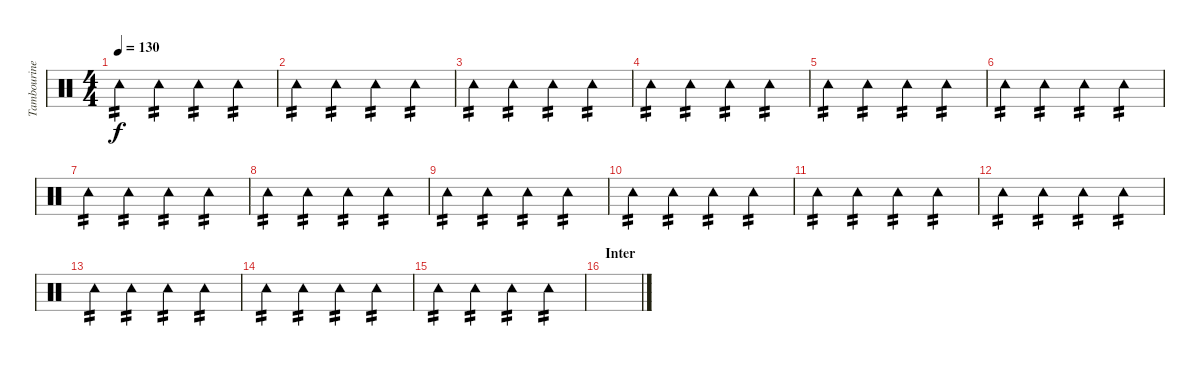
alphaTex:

\track ("Tambourine" "Tambourine") {instrument percussion}
\staff {score}
\articulation defaults
\ts (4 4)
\tempo 130
\clef neutral
\ks c "Tambourine (hit)".4{tp 2 dy f} "Tambourine (hit)".4{tp 2} "Tambourine (hit)".4{tp 2} "Tambourine (hit)".4{tp 2}
|
"Tambourine (hit)".4{tp 2} "Tambourine (hit)".4{tp 2} "Tambourine (hit)".4{tp 2} "Tambourine (hit)".4{tp 2} |
"Tambourine (hit)".4{tp 2} "Tambourine (hit)".4{tp 2} "Tambourine (hit)".4{tp 2} "Tambourine (hit)".4{tp 2} |
"Tambourine (hit)".4{tp 2} "Tambourine (hit)".4{tp 2} "Tambourine (hit)".4{tp 2} "Tambourine (hit)".4{tp 2} |
"Tambourine (hit)".4{tp 2} "Tambourine (hit)".4{tp 2} "Tambourine (hit)".4{tp 2} "Tambourine (hit)".4{tp 2} |
"Tambourine (hit)".4{tp 2} "Tambourine (hit)".4{tp 2} "Tambourine (hit)".4{tp 2} "Tambourine (hit)".4{tp 2} |
"Tambourine (hit)".4{tp 2} "Tambourine (hit)".4{tp 2} "Tambourine (hit)".4{tp 2} "Tambourine (hit)".4{tp 2} |
"Tambourine (hit)".4{tp 2} "Tambourine (hit)".4{tp 2} "Tambourine (hit)".4{tp 2} "Tambourine (hit)".4{tp 2} |
"Tambourine (hit)".4{tp 2} "Tambourine (hit)".4{tp 2} "Tambourine (hit)".4{tp 2} "Tambourine (hit)".4{tp 2} |
"Tambourine (hit)".4{tp 2} "Tambourine (hit)".4{tp 2} "Tambourine (hit)".4{tp 2} "Tambourine (hit)".4{tp 2} |
"Tambourine (hit)".4{tp 2} "Tambourine (hit)".4{tp 2} "Tambourine (hit)".4{tp 2} "Tambourine (hit)".4{tp 2} |
"Tambourine (hit)".4{tp 2} "Tambourine (hit)".4{tp 2} "Tambourine (hit)".4{tp 2} "Tambourine (hit)".4{tp 2} |
"Tambourine (hit)".4{tp 2} "Tambourine (hit)".4{tp 2} "Tambourine (hit)".4{tp 2} "Tambourine (hit)".4{tp 2} |
"Tambourine (hit)".4{tp 2} "Tambourine (hit)".4{tp 2} "Tambourine (hit)".4{tp 2} "Tambourine (hit)".4{tp 2} |
"Tambourine (hit)".4{tp 2} "Tambourine (hit)".4{tp 2} "Tambourine (hit)".4{tp 2} "Tambourine (hit)".4{tp 2} |
\section ("" "Inter")
